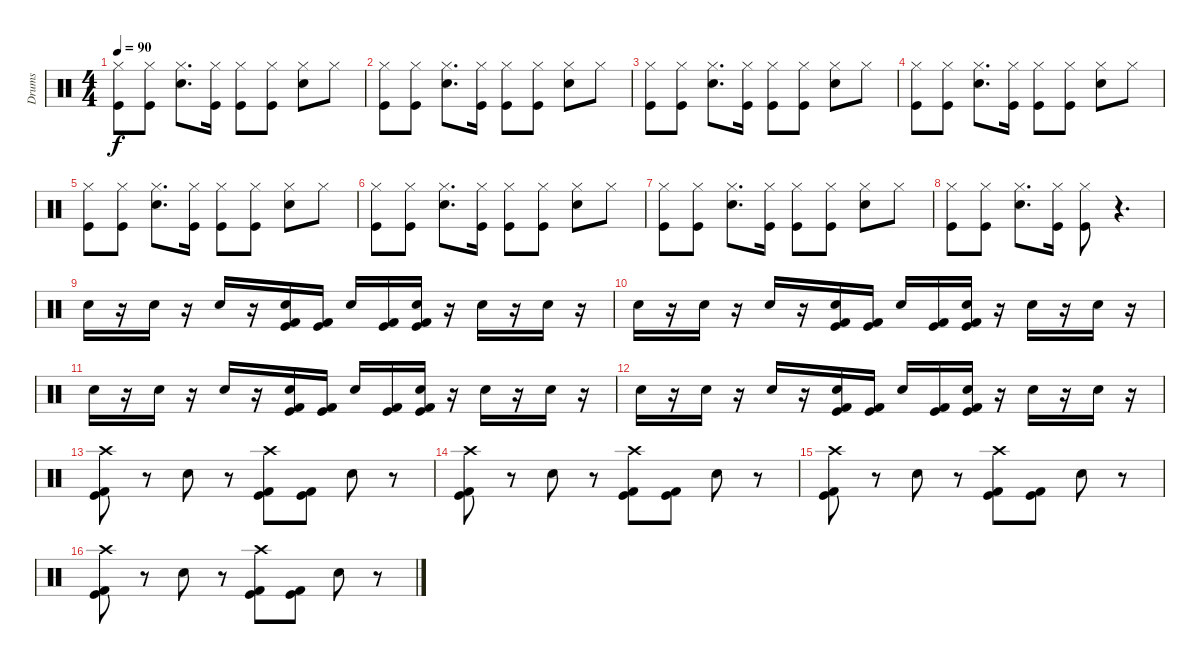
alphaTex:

\track ("Drums" "Drums") {instrument percussion}
\staff {score}
\articulation defaults
\ts (4 4)
\tempo 90
\clef neutral
\ks c
("Hi-Hat (closed)" "Kick (hit)").8{dy f} ("Hi-Hat (closed)" "Kick (hit)").8 ("Hi-Hat (closed)" "Snare (hit) 2").8{d} ("Hi-Hat (closed)" "Kick (hit)").16 ("Hi-Hat (closed)" "Kick (hit)").8 ("Hi-Hat (closed)" "Kick (hit)").8 ("Hi-Hat (closed)" "Snare (hit) 2").8 "Hi-Hat (closed)".8 |
("Hi-Hat (closed)" "Kick (hit)").8 ("Hi-Hat (closed)" "Kick (hit)").8 ("Hi-Hat (closed)" "Snare (hit) 2").8{d} ("Hi-Hat (closed)" "Kick (hit)").16 ("Hi-Hat (closed)" "Kick (hit)").8 ("Hi-Hat (closed)" "Kick (hit)").8 ("Hi-Hat (closed)" "Snare (hit) 2").8 "Hi-Hat (closed)".8 |
("Hi-Hat (closed)" "Kick (hit)").8 ("Hi-Hat (closed)" "Kick (hit)").8 ("Hi-Hat (closed)" "Snare (hit) 2").8{d} ("Hi-Hat (closed)" "Kick (hit)").16 ("Hi-Hat (closed)" "Kick (hit)").8 ("Hi-Hat (closed)" "Kick (hit)").8 ("Hi-Hat (closed)" "Snare (hit) 2").8 "Hi-Hat (closed)".8 |
("Hi-Hat (closed)" "Kick (hit)").8 ("Hi-Hat (closed)" "Kick (hit)").8 ("Hi-Hat (closed)" "Snare (hit) 2").8{d} ("Hi-Hat (closed)" "Kick (hit)").16 ("Hi-Hat (closed)" "Kick (hit)").8 ("Hi-Hat (closed)" "Kick (hit)").8 ("Hi-Hat (closed)" "Snare (hit) 2").8 "Hi-Hat (closed)".8 |
("Hi-Hat (closed)" "Kick (hit)").8 ("Hi-Hat (closed)" "Kick (hit)").8 ("Hi-Hat (closed)" "Snare (hit) 2").8{d} ("Hi-Hat (closed)" "Kick (hit)").16 ("Hi-Hat (closed)" "Kick (hit)").8 ("Hi-Hat (closed)" "Kick (hit)").8 ("Hi-Hat (closed)" "Snare (hit) 2").8 "Hi-Hat (closed)".8 |
("Hi-Hat (closed)" "Kick (hit)").8 ("Hi-Hat (closed)" "Kick (hit)").8 ("Hi-Hat (closed)" "Snare (hit) 2").8{d} ("Hi-Hat (closed)" "Kick (hit)").16 ("Hi-Hat (closed)" "Kick (hit)").8 ("Hi-Hat (closed)" "Kick (hit)").8 ("Hi-Hat (closed)" "Snare (hit) 2").8 "Hi-Hat (closed)".8 |
("Hi-Hat (closed)" "Kick (hit)").8 ("Hi-Hat (closed)" "Kick (hit)").8 ("Hi-Hat (closed)" "Snare (hit) 2").8{d} ("Hi-Hat (closed)" "Kick (hit)").16 ("Hi-Hat (closed)" "Kick (hit)").8 ("Hi-Hat (closed)" "Kick (hit)").8 ("Hi-Hat (closed)" "Snare (hit) 2").8 "Hi-Hat (closed)".8 |
("Hi-Hat (closed)" "Kick (hit)").8 ("Hi-Hat (closed)" "Kick (hit)").8 ("Hi-Hat (closed)" "Snare (hit) 2").8{d} ("Hi-Hat (closed)" "Kick (hit)").16 ("Hi-Hat (closed)" "Kick (hit)").8 r.4{d} |
"Snare (hit) 2".16 r.16 "Snare (hit) 2".16 r.16 "Snare (hit) 2".16 r.16 ("Snare (hit) 2" "Kick (hit) 2" "Kick (hit)").16 ("Kick (hit) 2" "Kick (hit)").16 "Snare (hit) 2".16 ("Kick (hit) 2" "Kick (hit)").16 ("Snare (hit) 2" "Kick (hit) 2" "Kick (hit)").16 r.16 "Snare (hit) 2".16 r.16 "Snare (hit) 2".16 r.16 |
"Snare (hit) 2".16 r.16 "Snare (hit) 2".16 r.16 "Snare (hit) 2".16 r.16 ("Snare (hit) 2" "Kick (hit) 2" "Kick (hit)").16 ("Kick (hit) 2" "Kick (hit)").16 "Snare (hit) 2".16 ("Kick (hit) 2" "Kick (hit)").16 ("Snare (hit) 2" "Kick (hit) 2" "Kick (hit)").16 r.16 "Snare (hit) 2".16 r.16 "Snare (hit) 2".16 r.16 |
"Snare (hit) 2".16 r.16 "Snare (hit) 2".16 r.16 "Snare (hit) 2".16 r.16 ("Snare (hit) 2" "Kick (hit) 2" "Kick (hit)").16 ("Kick (hit) 2" "Kick (hit)").16 "Snare (hit) 2".16 ("Kick (hit) 2" "Kick (hit)").16 ("Snare (hit) 2" "Kick (hit) 2" "Kick (hit)").16 r.16 "Snare (hit) 2".16 r.16 "Snare (hit) 2".16 r.16 |
"Snare (hit) 2".16 r.16 "Snare (hit) 2".16 r.16 "Snare (hit) 2".16 r.16 ("Snare (hit) 2" "Kick (hit) 2" "Kick (hit)").16 ("Kick (hit) 2" "Kick (hit)").16 "Snare (hit) 2".16 ("Kick (hit) 2" "Kick (hit)").16 ("Snare (hit) 2" "Kick (hit) 2" "Kick (hit)").16 r.16 "Snare (hit) 2".16 r.16 "Snare (hit) 2".16 r.16 |
("Crash high (hit)" "Kick (hit)" "Kick (hit) 2").8 r.8 "Snare (hit) 2".8 r.8 ("Crash high (hit)" "Kick (hit)" "Kick (hit) 2").8 ("Kick (hit)" "Kick (hit) 2").8 "Snare (hit) 2".8 r.8 |
("Crash high (hit)" "Kick (hit)" "Kick (hit) 2").8 r.8 "Snare (hit) 2".8 r.8 ("Crash high (hit)" "Kick (hit)" "Kick (hit) 2").8 ("Kick (hit)" "Kick (hit) 2").8 "Snare (hit) 2".8 r.8 |
("Crash high (hit)" "Kick (hit)" "Kick (hit) 2").8 r.8 "Snare (hit) 2".8 r.8 ("Crash high (hit)" "Kick (hit)" "Kick (hit) 2").8 ("Kick (hit)" "Kick (hit) 2").8 "Snare (hit) 2".8 r.8 |
("Crash high (hit)" "Kick (hit)" "Kick (hit) 2").8 r.8 "Snare (hit) 2".8 r.8 ("Crash high (hit)" "Kick (hit)" "Kick (hit) 2").8 ("Kick (hit)" "Kick (hit) 2").8 "Snare (hit) 2".8 r.8
